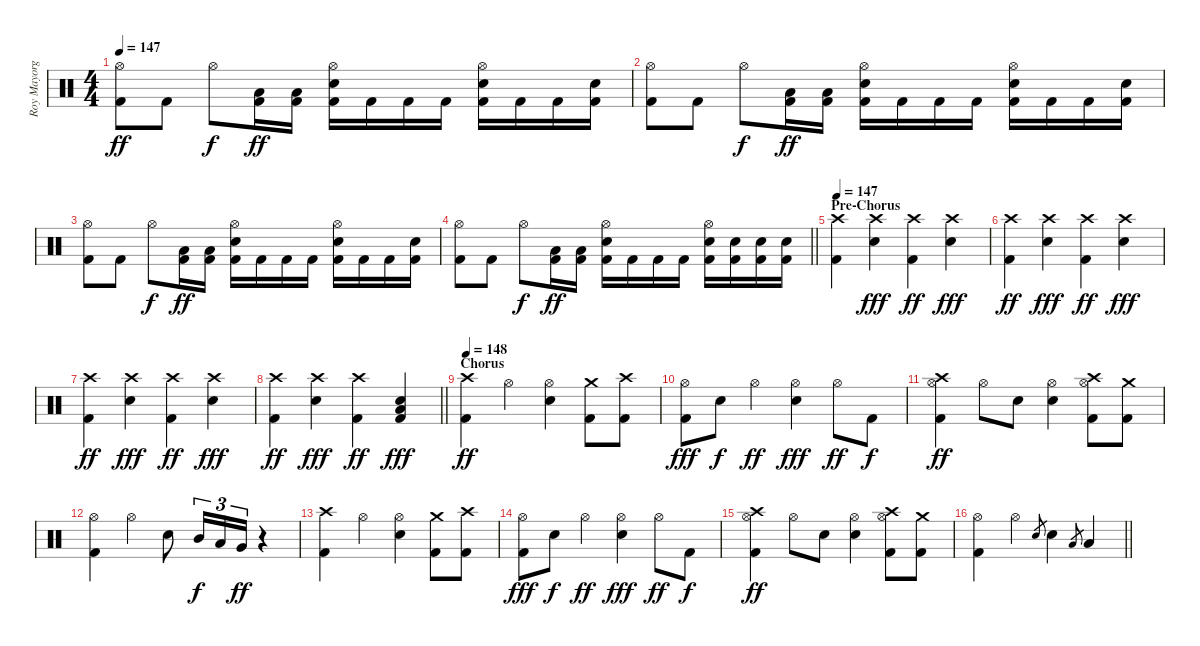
\track ("Roy Mayorga (Drums)" "Roy Mayorg") {instrument percussion}
\staff {score}
\articulation defaults
\ts (4 4)
\tempo 147
\clef neutral
\ks c
("Hi-Hat (open)" "Kick (hit) 2").8{dy ff} "Kick (hit) 2".8 "Hi-Hat (open)".8{dy f} ("Low Tom (hit)" "Kick (hit) 2").16{dy ff} ("Low Tom (hit)" "Kick (hit) 2").16 ("Hi-Hat (open)" "Electric Snare (hit)" "Kick (hit) 2").16 "Kick (hit) 2".16 "Kick (hit) 2".16 "Kick (hit) 2".16 ("Hi-Hat (open)" "Electric Snare (hit)" "Kick (hit) 2").16 "Kick (hit) 2".16 "Kick (hit) 2".16 ("Electric Snare (hit)" "Kick (hit) 2").16 |
("Hi-Hat (open)" "Kick (hit) 2").8 "Kick (hit) 2".8 "Hi-Hat (open)".8{dy f} ("Low Tom (hit)" "Kick (hit) 2").16{dy ff} ("Low Tom (hit)" "Kick (hit) 2").16 ("Hi-Hat (open)" "Electric Snare (hit)" "Kick (hit) 2").16 "Kick (hit) 2".16 "Kick (hit) 2".16 "Kick (hit) 2".16 ("Hi-Hat (open)" "Electric Snare (hit)" "Kick (hit) 2").16 "Kick (hit) 2".16 "Kick (hit) 2".16 ("Electric Snare (hit)" "Kick (hit) 2").16 |
("Hi-Hat (open)" "Kick (hit) 2").8 "Kick (hit) 2".8 "Hi-Hat (open)".8{dy f} ("Low Tom (hit)" "Kick (hit) 2").16{dy ff} ("Low Tom (hit)" "Kick (hit) 2").16 ("Hi-Hat (open)" "Electric Snare (hit)" "Kick (hit) 2").16 "Kick (hit) 2".16 "Kick (hit) 2".16 "Kick (hit) 2".16 ("Hi-Hat (open)" "Electric Snare (hit)" "Kick (hit) 2").16 "Kick (hit) 2".16 "Kick (hit) 2".16 ("Electric Snare (hit)" "Kick (hit) 2").16 |
\barLineRight lightlight
("Hi-Hat (open)" "Kick (hit) 2").8 "Kick (hit) 2".8 "Hi-Hat (open)".8{dy f} ("Low Tom (hit)" "Kick (hit) 2").16{dy ff} ("Low Tom (hit)" "Kick (hit) 2").16 ("Hi-Hat (open)" "Electric Snare (hit)" "Kick (hit) 2").16 "Kick (hit) 2".16 "Kick (hit) 2".16 "Kick (hit) 2".16 ("Hi-Hat (open)" "Electric Snare (hit)" "Kick (hit) 2").16 ("Electric Snare (hit)" "Kick (hit) 2").16 ("Electric Snare (hit)" "Kick (hit) 2").16 ("Electric Snare (hit)" "Kick (hit) 2").16 |
\section ("" "Pre-Chorus")
\tempo 147
("Crash high (hit)" "Kick (hit) 2").4 ("Crash high (hit)" "Electric Snare (hit)").4{dy fff} ("Crash high (hit)" "Kick (hit) 2").4{dy ff} ("Crash high (hit)" "Electric Snare (hit)").4{dy fff} |
("Crash high (hit)" "Kick (hit) 2").4{dy ff} ("Crash high (hit)" "Electric Snare (hit)").4{dy fff} ("Crash high (hit)" "Kick (hit) 2").4{dy ff} ("Crash high (hit)" "Electric Snare (hit)").4{dy fff} |
("Crash high (hit)" "Kick (hit) 2").4{dy ff} ("Crash high (hit)" "Electric Snare (hit)").4{dy fff} ("Crash high (hit)" "Kick (hit) 2").4{dy ff} ("Crash high (hit)" "Electric Snare (hit)").4{dy fff} |
\barLineRight lightlight
("Crash high (hit)" "Kick (hit) 2").4{dy ff} ("Crash high (hit)" "Electric Snare (hit)").4{dy fff} ("Crash high (hit)" "Kick (hit) 2").4{dy ff} ("Low Tom (hit)" "Electric Snare (hit)" "Kick (hit) 2").4{dy fff} |
\section ("" "Chorus")
\tempo 148
("Crash high (hit)" "Kick (hit) 2").4{dy ff} "Hi-Hat (open)".4 ("Hi-Hat (open)" "Electric Snare (hit)").4 ("Crash medium (hit)" "Kick (hit) 2").8 ("Crash high (hit)" "Kick (hit) 2").8 |
("Hi-Hat (open)" "Kick (hit) 2").8{dy fff} "Electric Snare (hit)".8{dy f} "Hi-Hat (open)".4{dy ff} ("Hi-Hat (open)" "Electric Snare (hit)").4{dy fff} "Hi-Hat (open)".8{dy ff} "Kick (hit) 2".8{dy f} |
("Crash high (hit)" "Hi-Hat (open)" "Kick (hit) 2").4{dy ff} "Hi-Hat (open)".8 "Electric Snare (hit)".8 ("Hi-Hat (open)" "Electric Snare (hit)").4 ("Crash high (hit)" "Hi-Hat (open)" "Kick (hit) 2").8 ("Crash medium (hit)" "Kick (hit) 2").8 |
("Hi-Hat (open)" "Kick (hit) 2").4 "Hi-Hat (open)".4 "Electric Snare (hit)".8 "Mid Tom (hit)".16{tu (3 2) dy f} "Low Tom (hit)".16{tu (3 2)} "Very Low Tom (hit)".16{tu (3 2) dy ff} r.4 |
("Crash high (hit)" "Kick (hit) 2").4 "Hi-Hat (open)".4 ("Hi-Hat (open)" "Electric Snare (hit)").4 ("Crash medium (hit)" "Kick (hit) 2").8 ("Crash high (hit)" "Kick (hit) 2").8 |
("Hi-Hat (open)" "Kick (hit) 2").8{dy fff} "Electric Snare (hit)".8{dy f} "Hi-Hat (open)".4{dy ff} ("Hi-Hat (open)" "Electric Snare (hit)").4{dy fff} "Hi-Hat (open)".8{dy ff} "Kick (hit) 2".8{dy f} |
("Crash high (hit)" "Hi-Hat (open)" "Kick (hit) 2").4{dy ff} "Hi-Hat (open)".8 "Electric Snare (hit)".8 ("Hi-Hat (open)" "Electric Snare (hit)").4 ("Crash high (hit)" "Hi-Hat (open)" "Kick (hit) 2").8 ("Crash medium (hit)" "Kick (hit) 2").8 |
\barLineRight lightlight
("Hi-Hat (open)" "Kick (hit) 2").4 "Hi-Hat (open)".4 "Electric Snare (hit)".8{gr} "Electric Snare (hit)".4 "Low Tom (hit)".8{gr} "Low Tom (hit)".4
